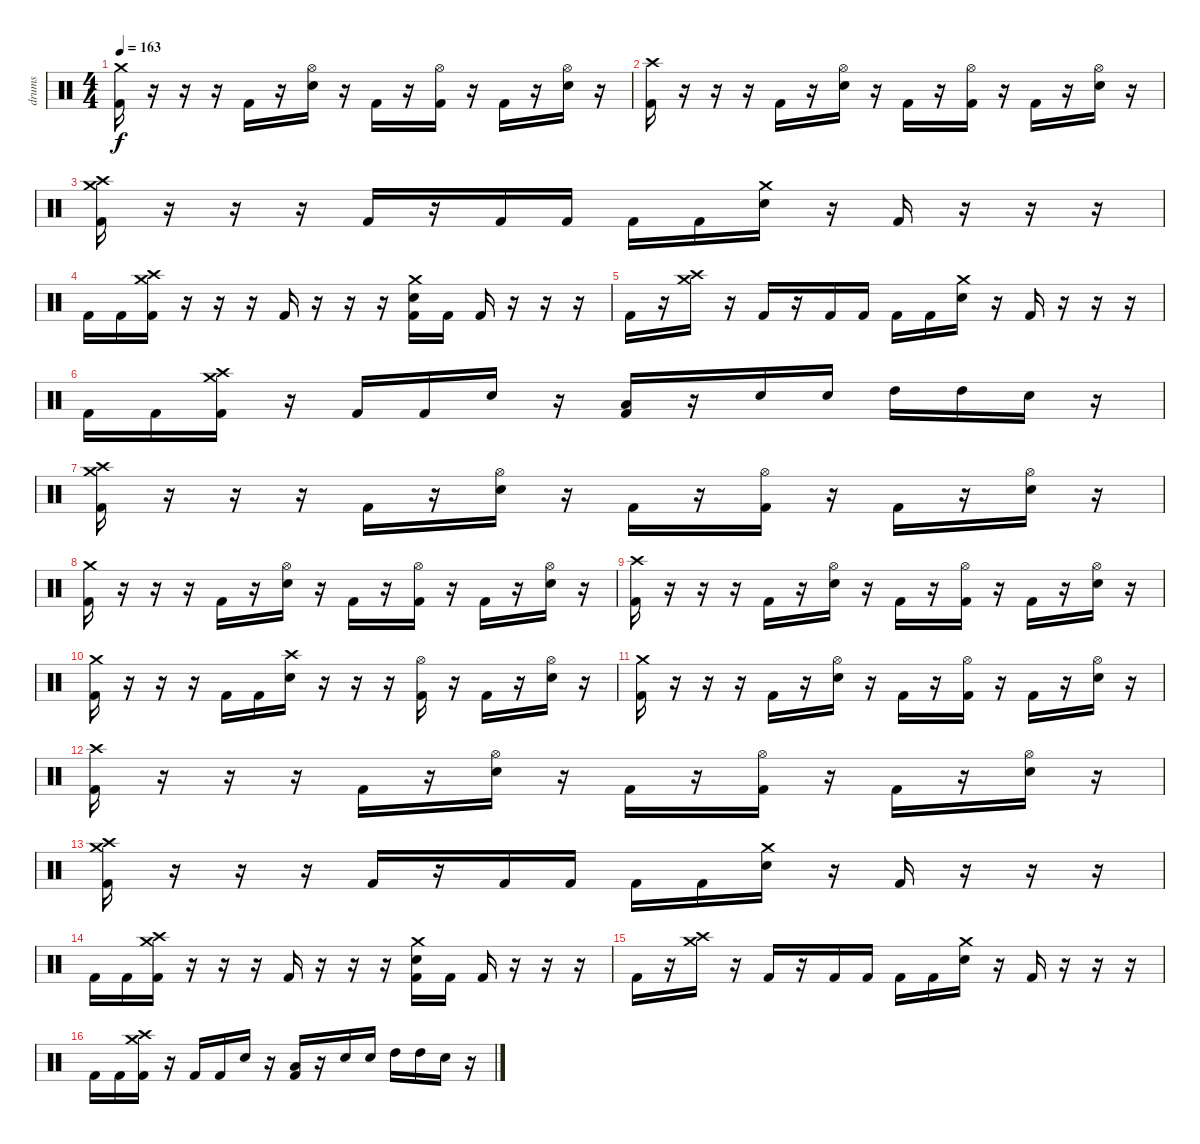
\track ("drums" "drums") {instrument percussion}
\staff {score}
\articulation defaults
\ts (4 4)
\tempo 163
\clef neutral
\ks c
("Crash medium (hit)" "Kick (hit) 2").16{dy f} r.16 r.16 r.16 "Kick (hit) 2".16 r.16 ("Hi-Hat (open)" "Electric Snare (hit)").16 r.16 "Kick (hit) 2".16 r.16 ("Hi-Hat (open)" "Kick (hit) 2").16 r.16 "Kick (hit) 2".16 r.16 ("Hi-Hat (open)" "Electric Snare (hit)").16 r.16 |
("Crash high (hit)" "Kick (hit) 2").16 r.16 r.16 r.16 "Kick (hit) 2".16 r.16 ("Hi-Hat (open)" "Electric Snare (hit)").16 r.16 "Kick (hit) 2".16 r.16 ("Hi-Hat (open)" "Kick (hit) 2").16 r.16 "Kick (hit) 2".16 r.16 ("Hi-Hat (open)" "Electric Snare (hit)").16 r.16 |
("Crash medium (hit)" "Crash high (hit)" "Kick (hit) 2").16 r.16 r.16 r.16 "Kick (hit) 2".16 r.16 "Kick (hit) 2".16 "Kick (hit) 2".16 "Kick (hit) 2".16 "Kick (hit) 2".16 ("Crash medium (hit)" "Electric Snare (hit)").16 r.16 "Kick (hit) 2".16 r.16 r.16 r.16 |
"Kick (hit) 2".16 "Kick (hit) 2".16 ("Crash medium (hit)" "Crash high (hit)" "Kick (hit) 2").16 r.16 r.16 r.16 "Kick (hit) 2".16 r.16 r.16 r.16 ("Crash medium (hit)" "Electric Snare (hit)" "Kick (hit) 2").16 "Kick (hit) 2".16 "Kick (hit) 2".16 r.16 r.16 r.16 |
"Kick (hit) 2".16 r.16 ("Crash medium (hit)" "Crash high (hit)").16 r.16 "Kick (hit) 2".16 r.16 "Kick (hit) 2".16 "Kick (hit) 2".16 "Kick (hit) 2".16 "Kick (hit) 2".16 ("Crash medium (hit)" "Electric Snare (hit)").16 r.16 "Kick (hit) 2".16 r.16 r.16 r.16 |
"Kick (hit) 2".16 "Kick (hit) 2".16 ("Crash medium (hit)" "Crash high (hit)" "Kick (hit) 2").16 r.16 "Kick (hit) 2".16 "Kick (hit) 2".16 "Electric Snare (hit)".16 r.16 ("Low Floor Tom (hit)" "Kick (hit) 2").16 r.16 "Electric Snare (hit)".16 "Electric Snare (hit)".16 "High Tom (hit)".16 "High Tom (hit)".16 "Electric Snare (hit)".16 r.16 |
("Crash medium (hit)" "Crash high (hit)" "Kick (hit) 2").16 r.16 r.16 r.16 "Kick (hit) 2".16 r.16 ("Hi-Hat (open)" "Electric Snare (hit)").16 r.16 "Kick (hit) 2".16 r.16 ("Hi-Hat (open)" "Kick (hit) 2").16 r.16 "Kick (hit) 2".16 r.16 ("Hi-Hat (open)" "Electric Snare (hit)").16 r.16 |
("Crash medium (hit)" "Kick (hit) 2").16 r.16 r.16 r.16 "Kick (hit) 2".16 r.16 ("Hi-Hat (open)" "Electric Snare (hit)").16 r.16 "Kick (hit) 2".16 r.16 ("Hi-Hat (open)" "Kick (hit) 2").16 r.16 "Kick (hit) 2".16 r.16 ("Hi-Hat (open)" "Electric Snare (hit)").16 r.16 |
("Crash high (hit)" "Kick (hit) 2").16 r.16 r.16 r.16 "Kick (hit) 2".16 r.16 ("Hi-Hat (open)" "Electric Snare (hit)").16 r.16 "Kick (hit) 2".16 r.16 ("Hi-Hat (open)" "Kick (hit) 2").16 r.16 "Kick (hit) 2".16 r.16 ("Hi-Hat (open)" "Electric Snare (hit)").16 r.16 |
("Crash medium (hit)" "Kick (hit) 2").16 r.16 r.16 r.16 "Kick (hit) 2".16 "Kick (hit) 2".16 ("Crash high (hit)" "Electric Snare (hit)").16 r.16 r.16 r.16 ("Hi-Hat (open)" "Kick (hit) 2").16 r.16 "Kick (hit) 2".16 r.16 ("Hi-Hat (open)" "Electric Snare (hit)").16 r.16 |
("Crash medium (hit)" "Kick (hit) 2").16 r.16 r.16 r.16 "Kick (hit) 2".16 r.16 ("Hi-Hat (open)" "Electric Snare (hit)").16 r.16 "Kick (hit) 2".16 r.16 ("Hi-Hat (open)" "Kick (hit) 2").16 r.16 "Kick (hit) 2".16 r.16 ("Hi-Hat (open)" "Electric Snare (hit)").16 r.16 |
("Crash high (hit)" "Kick (hit) 2").16 r.16 r.16 r.16 "Kick (hit) 2".16 r.16 ("Hi-Hat (open)" "Electric Snare (hit)").16 r.16 "Kick (hit) 2".16 r.16 ("Hi-Hat (open)" "Kick (hit) 2").16 r.16 "Kick (hit) 2".16 r.16 ("Hi-Hat (open)" "Electric Snare (hit)").16 r.16 |
("Crash medium (hit)" "Crash high (hit)" "Kick (hit) 2").16 r.16 r.16 r.16 "Kick (hit) 2".16 r.16 "Kick (hit) 2".16 "Kick (hit) 2".16 "Kick (hit) 2".16 "Kick (hit) 2".16 ("Crash medium (hit)" "Electric Snare (hit)").16 r.16 "Kick (hit) 2".16 r.16 r.16 r.16 |
"Kick (hit) 2".16 "Kick (hit) 2".16 ("Crash medium (hit)" "Crash high (hit)" "Kick (hit) 2").16 r.16 r.16 r.16 "Kick (hit) 2".16 r.16 r.16 r.16 ("Crash medium (hit)" "Electric Snare (hit)" "Kick (hit) 2").16 "Kick (hit) 2".16 "Kick (hit) 2".16 r.16 r.16 r.16 |
"Kick (hit) 2".16 r.16 ("Crash medium (hit)" "Crash high (hit)").16 r.16 "Kick (hit) 2".16 r.16 "Kick (hit) 2".16 "Kick (hit) 2".16 "Kick (hit) 2".16 "Kick (hit) 2".16 ("Crash medium (hit)" "Electric Snare (hit)").16 r.16 "Kick (hit) 2".16 r.16 r.16 r.16 |
"Kick (hit) 2".16 "Kick (hit) 2".16 ("Crash medium (hit)" "Crash high (hit)" "Kick (hit) 2").16 r.16 "Kick (hit) 2".16 "Kick (hit) 2".16 "Electric Snare (hit)".16 r.16 ("Low Floor Tom (hit)" "Kick (hit) 2").16 r.16 "Electric Snare (hit)".16 "Electric Snare (hit)".16 "High Tom (hit)".16 "High Tom (hit)".16 "Electric Snare (hit)".16 r.16
